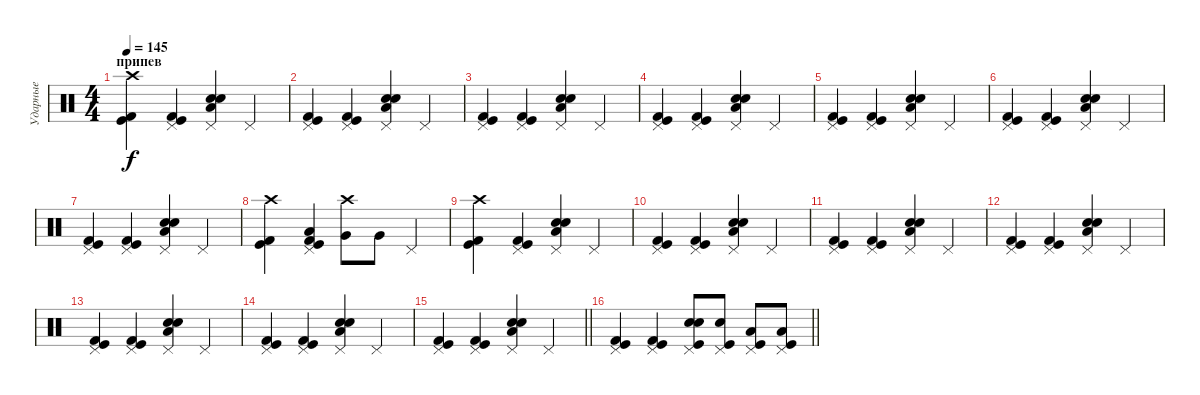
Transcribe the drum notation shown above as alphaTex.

\track ("Ударные" "Ударные") {instrument percussion}
\staff {score}
\articulation defaults
\ts (4 4)
\section ("" "припев")
\tempo 145
\clef neutral
\ks c
("Crash high (hit)" "Kick (hit) 2" "Kick (hit)").4{dy f} ("Pedal Hi-Hat (hit)" "Kick (hit) 2" "Kick (hit)").4 ("Pedal Hi-Hat (hit)" "Snare (hit) 2" "Electric Snare (hit)" "Low Floor Tom (hit)").4 "Pedal Hi-Hat (hit)".4 |
("Pedal Hi-Hat (hit)" "Kick (hit) 2" "Kick (hit)").4 ("Pedal Hi-Hat (hit)" "Kick (hit) 2" "Kick (hit)").4 ("Pedal Hi-Hat (hit)" "Snare (hit) 2" "Electric Snare (hit)" "Low Floor Tom (hit)").4 "Pedal Hi-Hat (hit)".4 |
("Pedal Hi-Hat (hit)" "Kick (hit) 2" "Kick (hit)").4 ("Pedal Hi-Hat (hit)" "Kick (hit) 2" "Kick (hit)").4 ("Pedal Hi-Hat (hit)" "Snare (hit) 2" "Electric Snare (hit)" "Low Floor Tom (hit)").4 "Pedal Hi-Hat (hit)".4 |
("Pedal Hi-Hat (hit)" "Kick (hit) 2" "Kick (hit)").4 ("Pedal Hi-Hat (hit)" "Kick (hit) 2" "Kick (hit)").4 ("Pedal Hi-Hat (hit)" "Snare (hit) 2" "Electric Snare (hit)" "Low Floor Tom (hit)").4 "Pedal Hi-Hat (hit)".4 |
("Pedal Hi-Hat (hit)" "Kick (hit) 2" "Kick (hit)").4 ("Pedal Hi-Hat (hit)" "Kick (hit) 2" "Kick (hit)").4 ("Pedal Hi-Hat (hit)" "Snare (hit) 2" "Electric Snare (hit)" "Low Floor Tom (hit)").4 "Pedal Hi-Hat (hit)".4 |
("Pedal Hi-Hat (hit)" "Kick (hit) 2" "Kick (hit)").4 ("Pedal Hi-Hat (hit)" "Kick (hit) 2" "Kick (hit)").4 ("Pedal Hi-Hat (hit)" "Snare (hit) 2" "Electric Snare (hit)" "Low Floor Tom (hit)").4 "Pedal Hi-Hat (hit)".4 |
("Pedal Hi-Hat (hit)" "Kick (hit) 2" "Kick (hit)").4 ("Pedal Hi-Hat (hit)" "Kick (hit) 2" "Kick (hit)").4 ("Pedal Hi-Hat (hit)" "Snare (hit) 2" "Electric Snare (hit)" "Low Floor Tom (hit)").4 "Pedal Hi-Hat (hit)".4 |
("Crash high (hit)" "Kick (hit) 2" "Kick (hit)").4 ("Pedal Hi-Hat (hit)" "Kick (hit) 2" "Low Tom (hit)" "Kick (hit)").4 ("Crash high (hit)" "Very Low Tom (hit)").8 "Very Low Tom (hit)".8 "Pedal Hi-Hat (hit)".4 |
("Crash high (hit)" "Kick (hit) 2" "Kick (hit)").4 ("Pedal Hi-Hat (hit)" "Kick (hit) 2" "Kick (hit)").4 ("Pedal Hi-Hat (hit)" "Snare (hit) 2" "Electric Snare (hit)" "Low Floor Tom (hit)").4 "Pedal Hi-Hat (hit)".4 |
("Pedal Hi-Hat (hit)" "Kick (hit) 2" "Kick (hit)").4 ("Pedal Hi-Hat (hit)" "Kick (hit) 2" "Kick (hit)").4 ("Pedal Hi-Hat (hit)" "Snare (hit) 2" "Electric Snare (hit)" "Low Floor Tom (hit)").4 "Pedal Hi-Hat (hit)".4 |
("Pedal Hi-Hat (hit)" "Kick (hit) 2" "Kick (hit)").4 ("Pedal Hi-Hat (hit)" "Kick (hit) 2" "Kick (hit)").4 ("Pedal Hi-Hat (hit)" "Snare (hit) 2" "Electric Snare (hit)" "Low Floor Tom (hit)").4 "Pedal Hi-Hat (hit)".4 |
("Pedal Hi-Hat (hit)" "Kick (hit) 2" "Kick (hit)").4 ("Pedal Hi-Hat (hit)" "Kick (hit) 2" "Kick (hit)").4 ("Pedal Hi-Hat (hit)" "Snare (hit) 2" "Electric Snare (hit)" "Low Floor Tom (hit)").4 "Pedal Hi-Hat (hit)".4 |
("Pedal Hi-Hat (hit)" "Kick (hit) 2" "Kick (hit)").4 ("Pedal Hi-Hat (hit)" "Kick (hit) 2" "Kick (hit)").4 ("Pedal Hi-Hat (hit)" "Snare (hit) 2" "Electric Snare (hit)" "Low Floor Tom (hit)").4 "Pedal Hi-Hat (hit)".4 |
("Pedal Hi-Hat (hit)" "Kick (hit) 2" "Kick (hit)").4 ("Pedal Hi-Hat (hit)" "Kick (hit) 2" "Kick (hit)").4 ("Pedal Hi-Hat (hit)" "Snare (hit) 2" "Electric Snare (hit)" "Low Floor Tom (hit)").4 "Pedal Hi-Hat (hit)".4 |
\barLineRight lightlight
("Pedal Hi-Hat (hit)" "Kick (hit) 2" "Kick (hit)").4 ("Pedal Hi-Hat (hit)" "Kick (hit) 2" "Kick (hit)").4 ("Pedal Hi-Hat (hit)" "Snare (hit) 2" "Electric Snare (hit)" "Low Floor Tom (hit)").4 "Pedal Hi-Hat (hit)".4 |
\barLineRight lightlight
("Pedal Hi-Hat (hit)" "Kick (hit) 2" "Kick (hit)").4 ("Pedal Hi-Hat (hit)" "Kick (hit) 2" "Kick (hit)").4 ("Pedal Hi-Hat (hit)" "Electric Snare (hit)" "Kick (hit)" "Snare (hit)").8 ("Pedal Hi-Hat (hit)" "Electric Snare (hit)" "Kick (hit)").8 ("Pedal Hi-Hat (hit)" "Low Tom (hit)" "Kick (hit)").8 ("Pedal Hi-Hat (hit)" "Low Tom (hit)" "Kick (hit)").8
